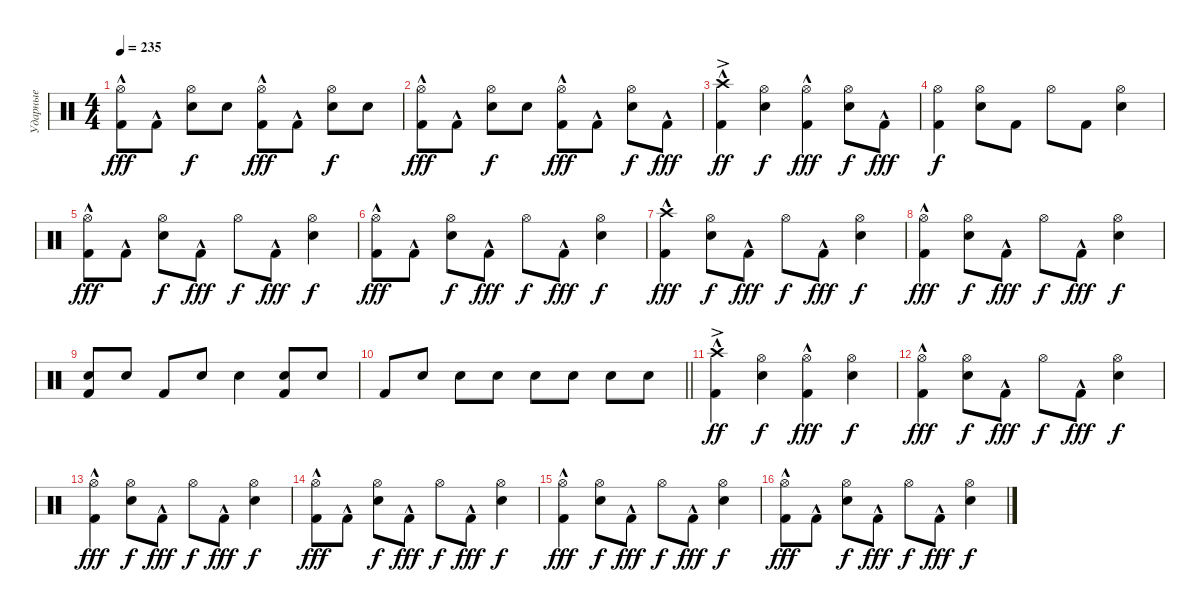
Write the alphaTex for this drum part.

\track ("Ударные" "Ударные") {instrument percussion}
\staff {score}
\articulation defaults
\ts (4 4)
\tempo 235
\clef neutral
\ks c
("Kick (hit) 2"{hac} "Hi-Hat (open)").8{dy fff} "Kick (hit) 2"{hac}.8 ("Snare (hit) 2" "Hi-Hat (open)").8{dy f} "Snare (hit) 2".8 ("Kick (hit) 2"{hac} "Hi-Hat (open)").8{dy fff} "Kick (hit) 2"{hac}.8 ("Snare (hit) 2" "Hi-Hat (open)").8{dy f} "Snare (hit) 2".8 |
("Kick (hit) 2"{hac} "Hi-Hat (open)").8{dy fff} "Kick (hit) 2"{hac}.8 ("Snare (hit) 2" "Hi-Hat (open)").8{dy f} "Snare (hit) 2".8 ("Kick (hit) 2"{hac} "Hi-Hat (open)").8{dy fff} "Kick (hit) 2"{hac}.8 ("Snare (hit) 2" "Hi-Hat (open)").8{dy f} "Kick (hit) 2"{hac}.8{dy fff} |
("Kick (hit) 2"{hac} "Crash high (hit)"{ac}).4{dy ff} ("Snare (hit) 2" "Hi-Hat (open)").4{dy f} ("Kick (hit) 2"{hac} "Hi-Hat (open)").4{dy fff} ("Snare (hit) 2" "Hi-Hat (open)").8{dy f} "Kick (hit) 2"{hac}.8{dy fff} |
("Kick (hit) 2" "Hi-Hat (open)").4{dy f} ("Snare (hit) 2" "Hi-Hat (open)").8 "Kick (hit) 2".8 "Hi-Hat (open)".8 "Kick (hit) 2".8 ("Snare (hit) 2" "Hi-Hat (open)").4 |
("Kick (hit) 2"{hac} "Hi-Hat (open)").8{dy fff} "Kick (hit) 2"{hac}.8 ("Snare (hit) 2" "Hi-Hat (open)").8{dy f} "Kick (hit) 2"{hac}.8{dy fff} "Hi-Hat (open)".8{dy f} "Kick (hit) 2"{hac}.8{dy fff} ("Snare (hit) 2" "Hi-Hat (open)").4{dy f} |
("Kick (hit) 2"{hac} "Hi-Hat (open)").8{dy fff} "Kick (hit) 2"{hac}.8 ("Snare (hit) 2" "Hi-Hat (open)").8{dy f} "Kick (hit) 2"{hac}.8{dy fff} "Hi-Hat (open)".8{dy f} "Kick (hit) 2"{hac}.8{dy fff} ("Snare (hit) 2" "Hi-Hat (open)").4{dy f} |
("Kick (hit) 2"{hac} "Crash high (hit)").4{dy fff} ("Snare (hit) 2" "Hi-Hat (open)").8{dy f} "Kick (hit) 2"{hac}.8{dy fff} "Hi-Hat (open)".8{dy f} "Kick (hit) 2"{hac}.8{dy fff} ("Snare (hit) 2" "Hi-Hat (open)").4{dy f} |
("Kick (hit) 2"{hac} "Hi-Hat (open)").4{dy fff} ("Snare (hit) 2" "Hi-Hat (open)").8{dy f} "Kick (hit) 2"{hac}.8{dy fff} "Hi-Hat (open)".8{dy f} "Kick (hit) 2"{hac}.8{dy fff} ("Snare (hit) 2" "Hi-Hat (open)").4{dy f} |
("Kick (hit) 2" "Snare (hit) 2").8 "Snare (hit) 2".8 "Kick (hit) 2".8 "Snare (hit) 2".8 "Snare (hit) 2".4 ("Kick (hit) 2" "Snare (hit) 2").8 "Snare (hit) 2".8 |
\barLineRight lightlight "Kick (hit) 2".8 "Snare (hit) 2".8 "Snare (hit) 2".8 "Snare (hit) 2".8 "Snare (hit) 2".8 "Snare (hit) 2".8 "Snare (hit) 2".8 "Snare (hit) 2".8
|
("Kick (hit) 2"{hac} "Crash high (hit)"{ac}).4{dy ff} ("Snare (hit) 2" "Hi-Hat (open)").4{dy f} ("Kick (hit) 2"{hac} "Hi-Hat (open)").4{dy fff} ("Snare (hit) 2" "Hi-Hat (open)").4{dy f} |
("Kick (hit) 2"{hac} "Hi-Hat (open)").4{dy fff} ("Snare (hit) 2" "Hi-Hat (open)").8{dy f} "Kick (hit) 2"{hac}.8{dy fff} "Hi-Hat (open)".8{dy f} "Kick (hit) 2"{hac}.8{dy fff} ("Snare (hit) 2" "Hi-Hat (open)").4{dy f} |
("Kick (hit) 2"{hac} "Hi-Hat (open)").4{dy fff} ("Snare (hit) 2" "Hi-Hat (open)").8{dy f} "Kick (hit) 2"{hac}.8{dy fff} "Hi-Hat (open)".8{dy f} "Kick (hit) 2"{hac}.8{dy fff} ("Snare (hit) 2" "Hi-Hat (open)").4{dy f} |
("Kick (hit) 2"{hac} "Hi-Hat (open)").8{dy fff} "Kick (hit) 2"{hac}.8 ("Snare (hit) 2" "Hi-Hat (open)").8{dy f} "Kick (hit) 2"{hac}.8{dy fff} "Hi-Hat (open)".8{dy f} "Kick (hit) 2"{hac}.8{dy fff} ("Snare (hit) 2" "Hi-Hat (open)").4{dy f} |
("Kick (hit) 2"{hac} "Hi-Hat (open)").4{dy fff} ("Snare (hit) 2" "Hi-Hat (open)").8{dy f} "Kick (hit) 2"{hac}.8{dy fff} "Hi-Hat (open)".8{dy f} "Kick (hit) 2"{hac}.8{dy fff} ("Snare (hit) 2" "Hi-Hat (open)").4{dy f} |
("Kick (hit) 2"{hac} "Hi-Hat (open)").8{dy fff} "Kick (hit) 2"{hac}.8 ("Snare (hit) 2" "Hi-Hat (open)").8{dy f} "Kick (hit) 2"{hac}.8{dy fff} "Hi-Hat (open)".8{dy f} "Kick (hit) 2"{hac}.8{dy fff} ("Snare (hit) 2" "Hi-Hat (open)").4{dy f}
